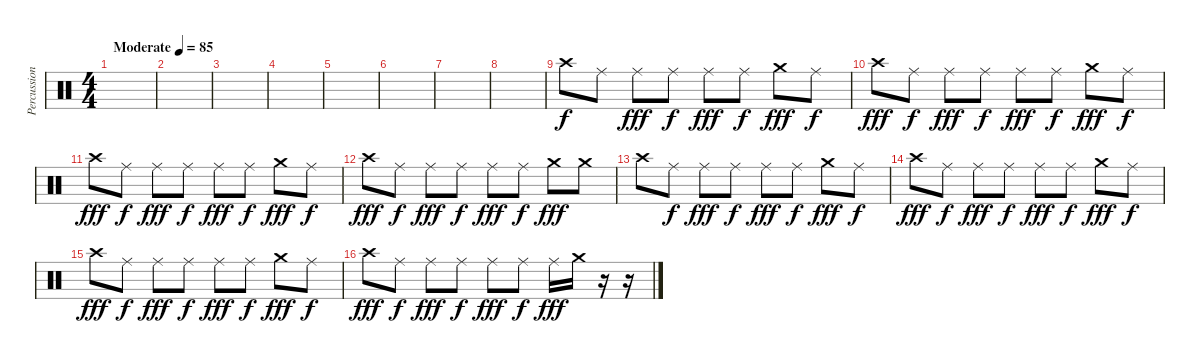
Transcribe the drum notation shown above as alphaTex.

\track ("Percussion" "Percussion") {instrument percussion}
\staff {score}
\articulation defaults
\ts (4 4)
\tempo (85 "Moderate")
\clef neutral
\ks c
|
|
|
|
|
|
|
|
"Crash high (hit)".8 "Ride (middle)".8{dy f} "Ride (middle)".8{dy fff} "Ride (middle)".8{dy f} "Ride (middle)".8{dy fff} "Ride (middle)".8{dy f} "Crash medium (hit)".8{dy fff} "Ride (middle)".8{dy f} |
"Crash high (hit)".8{dy fff} "Ride (middle)".8{dy f} "Ride (middle)".8{dy fff} "Ride (middle)".8{dy f} "Ride (middle)".8{dy fff} "Ride (middle)".8{dy f} "Crash medium (hit)".8{dy fff} "Ride (middle)".8{dy f} |
"Crash high (hit)".8{dy fff} "Ride (middle)".8{dy f} "Ride (middle)".8{dy fff} "Ride (middle)".8{dy f} "Ride (middle)".8{dy fff} "Ride (middle)".8{dy f} "Crash medium (hit)".8{dy fff} "Ride (middle)".8{dy f} |
"Crash high (hit)".8{dy fff} "Ride (middle)".8{dy f} "Ride (middle)".8{dy fff} "Ride (middle)".8{dy f} "Ride (middle)".8{dy fff} "Ride (middle)".8{dy f} "Crash medium (hit)".8{dy fff} "Crash medium (hit)".8 |
"Crash high (hit)".8 "Ride (middle)".8{dy f} "Ride (middle)".8{dy fff} "Ride (middle)".8{dy f} "Ride (middle)".8{dy fff} "Ride (middle)".8{dy f} "Crash medium (hit)".8{dy fff} "Ride (middle)".8{dy f} |
"Crash high (hit)".8{dy fff} "Ride (middle)".8{dy f} "Ride (middle)".8{dy fff} "Ride (middle)".8{dy f} "Ride (middle)".8{dy fff} "Ride (middle)".8{dy f} "Crash medium (hit)".8{dy fff} "Ride (middle)".8{dy f} |
"Crash high (hit)".8{dy fff} "Ride (middle)".8{dy f} "Ride (middle)".8{dy fff} "Ride (middle)".8{dy f} "Ride (middle)".8{dy fff} "Ride (middle)".8{dy f} "Crash medium (hit)".8{dy fff} "Ride (middle)".8{dy f} |
"Crash high (hit)".8{dy fff} "Ride (middle)".8{dy f} "Ride (middle)".8{dy fff} "Ride (middle)".8{dy f} "Ride (middle)".8{dy fff} "Ride (middle)".8{dy f} "Ride (middle)".16{dy fff} "Crash medium (hit)".16 r.16 r.16
